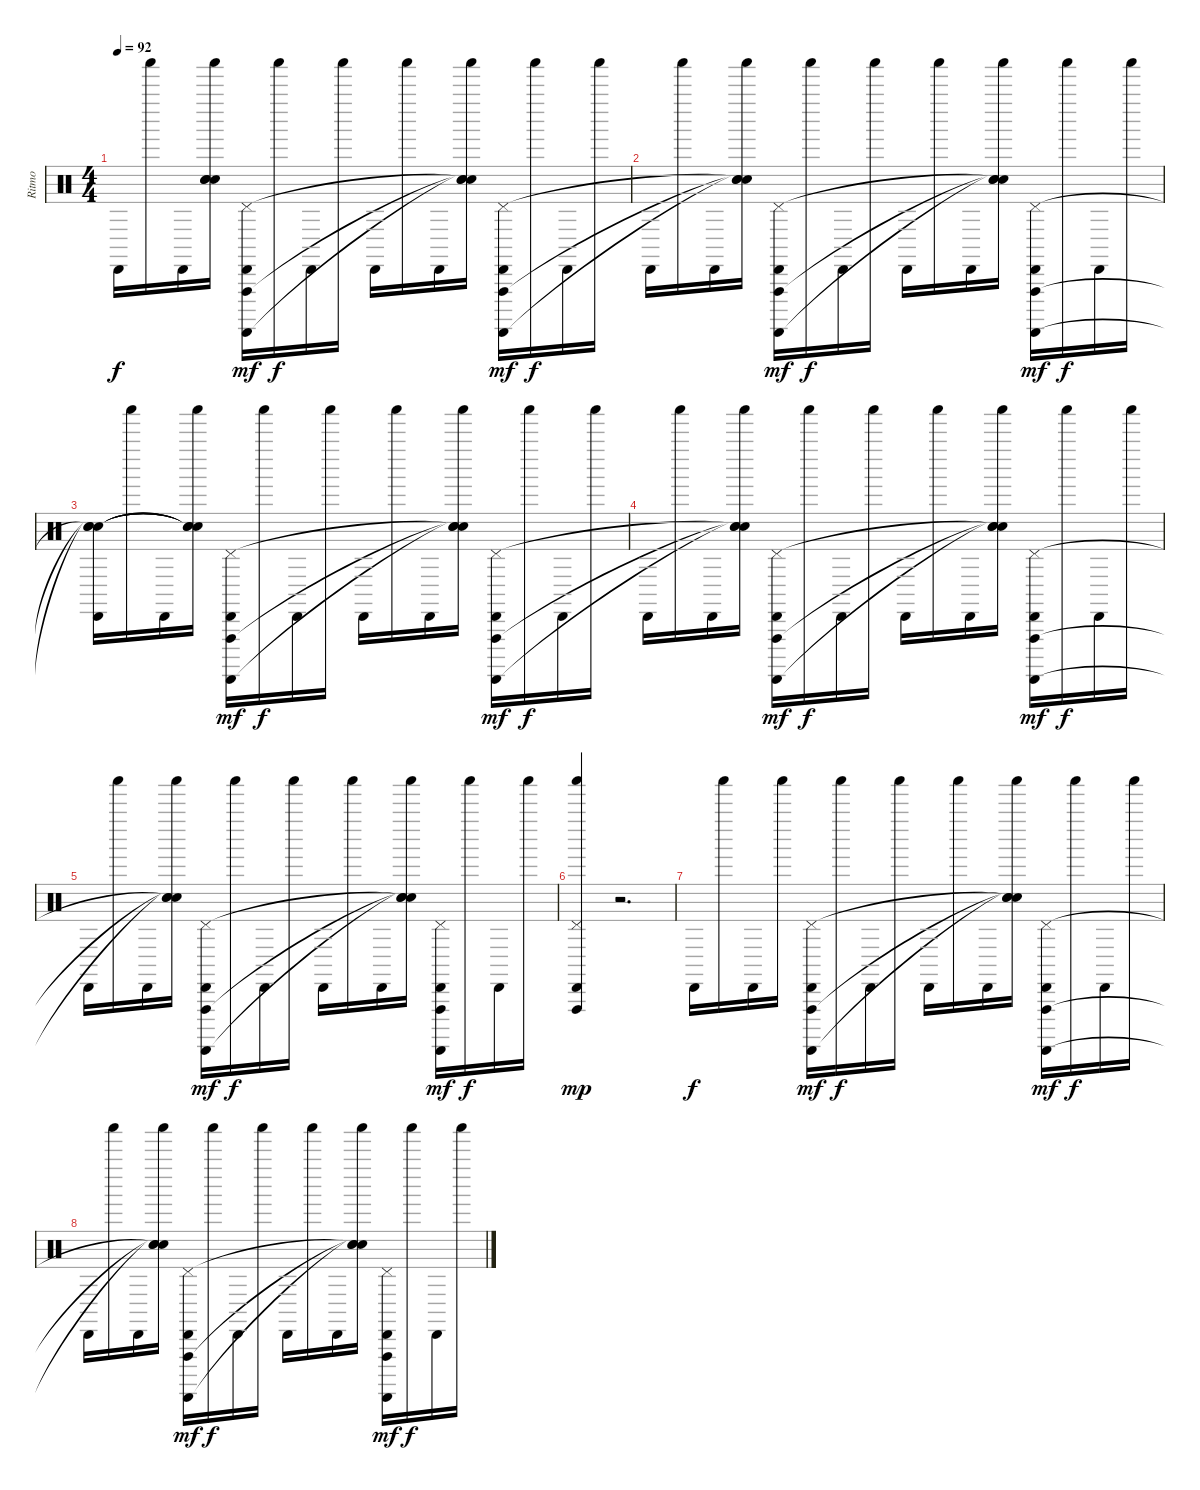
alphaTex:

\track ("Ritmo" "Ritmo") {instrument percussion}
\staff {score}
\articulation defaults
\ts (4 4)
\tempo 92
\clef neutral
\ks c "Cabasa (hit)".16{dy f} "Shaker (hit)".16 "Cabasa (hit)".16
("Shaker (hit)" "Snare (hit)"{t} "Snare (hit)"{t} "Snare (hit)"{t}).16 ("Cabasa (hit)" "Vibraslap (hit)" "Guiro (scrap-return)" "Pedal Hi-Hat (hit)").16{dy mf} "Shaker (hit)".16{dy f} "Cabasa (hit)".16 "Shaker (hit)".16 "Cabasa (hit)".16 "Shaker (hit)".16 "Cabasa (hit)".16 ("Shaker (hit)" "Snare (hit)"{t} "Snare (hit)"{t} "Snare (hit)"{t}).16 ("Cabasa (hit)" "Vibraslap (hit)" "Guiro (scrap-return)" "Pedal Hi-Hat (hit)").16{dy mf} "Shaker (hit)".16{dy f} "Cabasa (hit)".16 "Shaker (hit)".16 |
"Cabasa (hit)".16 "Shaker (hit)".16 "Cabasa (hit)".16 ("Shaker (hit)" "Snare (hit)"{t} "Snare (hit)"{t} "Snare (hit)"{t}).16 ("Cabasa (hit)" "Vibraslap (hit)" "Guiro (scrap-return)" "Pedal Hi-Hat (hit)").16{dy mf} "Shaker (hit)".16{dy f} "Cabasa (hit)".16 "Shaker (hit)".16 "Cabasa (hit)".16 "Shaker (hit)".16 "Cabasa (hit)".16 ("Shaker (hit)" "Snare (hit)"{t} "Snare (hit)"{t} "Snare (hit)"{t}).16 ("Cabasa (hit)" "Vibraslap (hit)" "Guiro (scrap-return)" "Pedal Hi-Hat (hit)").16{dy mf} "Shaker (hit)".16{dy f} "Cabasa (hit)".16 "Shaker (hit)".16 |
("Cabasa (hit)" "Snare (hit)"{t} "Snare (hit)"{t} "Snare (hit)"{t}).16 "Shaker (hit)".16 "Cabasa (hit)".16 ("Shaker (hit)" "Snare (hit)"{t} "Snare (hit)"{t} "Snare (hit)"{t}).16 ("Cabasa (hit)" "Vibraslap (hit)" "Guiro (scrap-return)" "Pedal Hi-Hat (hit)").16{dy mf} "Shaker (hit)".16{dy f} "Cabasa (hit)".16 "Shaker (hit)".16 "Cabasa (hit)".16 "Shaker (hit)".16 "Cabasa (hit)".16 ("Shaker (hit)" "Snare (hit)"{t} "Snare (hit)"{t} "Snare (hit)"{t}).16 ("Cabasa (hit)" "Vibraslap (hit)" "Guiro (scrap-return)" "Pedal Hi-Hat (hit)").16{dy mf} "Shaker (hit)".16{dy f} "Cabasa (hit)".16 "Shaker (hit)".16 |
"Cabasa (hit)".16 "Shaker (hit)".16 "Cabasa (hit)".16 ("Shaker (hit)" "Snare (hit)"{t} "Snare (hit)"{t} "Snare (hit)"{t}).16 ("Cabasa (hit)" "Vibraslap (hit)" "Guiro (scrap-return)" "Pedal Hi-Hat (hit)").16{dy mf} "Shaker (hit)".16{dy f} "Cabasa (hit)".16 "Shaker (hit)".16 "Cabasa (hit)".16 "Shaker (hit)".16 "Cabasa (hit)".16 ("Shaker (hit)" "Snare (hit)"{t} "Snare (hit)"{t} "Snare (hit)"{t}).16 ("Cabasa (hit)" "Vibraslap (hit)" "Guiro (scrap-return)" "Pedal Hi-Hat (hit)").16{dy mf} "Shaker (hit)".16{dy f} "Cabasa (hit)".16 "Shaker (hit)".16 |
"Cabasa (hit)".16 "Shaker (hit)".16 "Cabasa (hit)".16 ("Shaker (hit)" "Snare (hit)"{t} "Snare (hit)"{t} "Snare (hit)"{t}).16 ("Cabasa (hit)" "Vibraslap (hit)" "Guiro (scrap-return)" "Pedal Hi-Hat (hit)").16{dy mf} "Shaker (hit)".16{dy f} "Cabasa (hit)".16 "Shaker (hit)".16 "Cabasa (hit)".16 "Shaker (hit)".16 "Cabasa (hit)".16 ("Shaker (hit)" "Snare (hit)"{t} "Snare (hit)"{t} "Snare (hit)"{t}).16 ("Cabasa (hit)" "Vibraslap (hit)" "Guiro (scrap-return)" "Pedal Hi-Hat (hit)").16{dy mf} "Shaker (hit)".16{dy f} "Cabasa (hit)".16 "Shaker (hit)".16 |
("Cabasa (hit)" "Shaker (hit)" "Pedal Hi-Hat (hit)" "Vibraslap (hit)").4{dy mp} r.2{d} |
"Cabasa (hit)".16{dy f} "Shaker (hit)".16 "Cabasa (hit)".16 "Shaker (hit)".16 ("Cabasa (hit)" "Vibraslap (hit)" "Guiro (scrap-return)" "Pedal Hi-Hat (hit)").16{dy mf} "Shaker (hit)".16{dy f} "Cabasa (hit)".16 "Shaker (hit)".16 "Cabasa (hit)".16 "Shaker (hit)".16 "Cabasa (hit)".16 ("Shaker (hit)" "Snare (hit)"{t} "Snare (hit)"{t} "Snare (hit)"{t}).16 ("Cabasa (hit)" "Vibraslap (hit)" "Guiro (scrap-return)" "Pedal Hi-Hat (hit)").16{dy mf} "Shaker (hit)".16{dy f} "Cabasa (hit)".16 "Shaker (hit)".16 |
"Cabasa (hit)".16 "Shaker (hit)".16 "Cabasa (hit)".16 ("Shaker (hit)" "Snare (hit)"{t} "Snare (hit)"{t} "Snare (hit)"{t}).16 ("Cabasa (hit)" "Vibraslap (hit)" "Guiro (scrap-return)" "Pedal Hi-Hat (hit)").16{dy mf} "Shaker (hit)".16{dy f} "Cabasa (hit)".16 "Shaker (hit)".16 "Cabasa (hit)".16 "Shaker (hit)".16 "Cabasa (hit)".16 ("Shaker (hit)" "Snare (hit)"{t} "Snare (hit)"{t} "Snare (hit)"{t}).16 ("Cabasa (hit)" "Vibraslap (hit)" "Guiro (scrap-return)" "Pedal Hi-Hat (hit)").16{dy mf} "Shaker (hit)".16{dy f} "Cabasa (hit)".16 "Shaker (hit)".16
